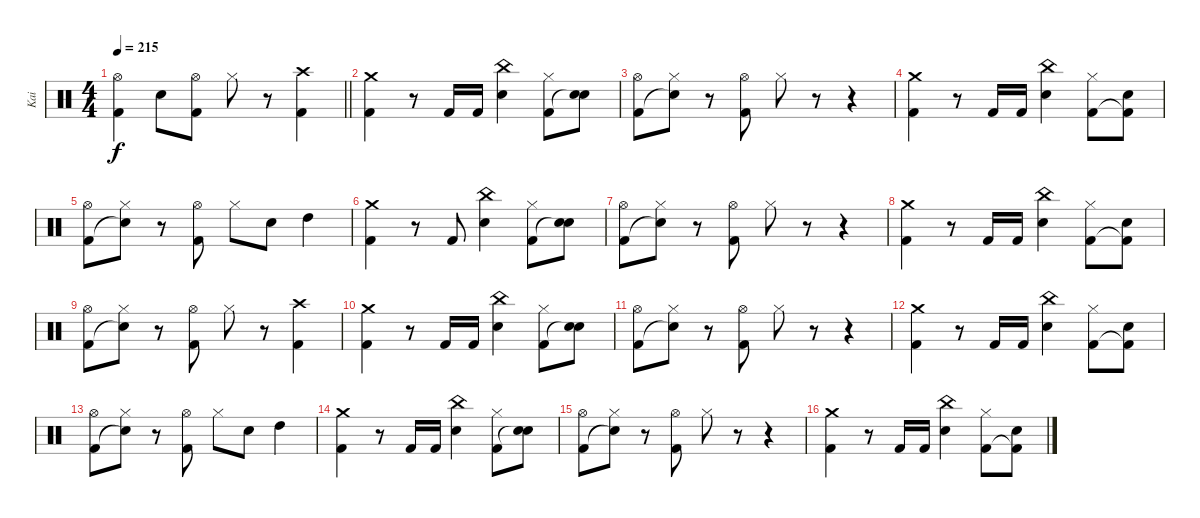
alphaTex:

\track ("Kai" "Kai") {instrument percussion}
\staff {score}
\articulation defaults
\ts (4 4)
\tempo 215
\clef neutral
\barLineRight lightlight
\ks c
("Hi-Hat (open)" "Kick (hit) 2").4{dy f} "Snare (hit) 2".8 ("Hi-Hat (open)" "Kick (hit) 2").8 "Hi-Hat (closed)".8 r.8 ("Crash high (hit)" "Kick (hit) 2").4 |
("Crash medium (hit)" "Kick (hit) 2").4 r.8 "Kick (hit) 2".16 "Kick (hit) 2".16 ("China (hit)" "Snare (hit) 2").4 ("Hi-Hat (closed)" "Kick (hit) 2").8 ("Snare (hit) 2" "Snare (hit)"{t}).8 |
("Hi-Hat (open)" "Kick (hit) 2").8 ("Hi-Hat (closed)" "Snare (hit)"{t}).8 r.8 ("Hi-Hat (open)" "Kick (hit) 2").8 "Hi-Hat (closed)".8 r.8 r.4 |
("Crash medium (hit)" "Kick (hit) 2").4 r.8 "Kick (hit) 2".16 "Kick (hit) 2".16 ("China (hit)" "Snare (hit) 2").4 ("Hi-Hat (closed)" "Kick (hit) 2").8 ("Snare (hit) 2" "Kick (hit) 2"{t}).8 |
("Hi-Hat (open)" "Kick (hit) 2").8 ("Hi-Hat (closed)" "Snare (hit)"{t}).8 r.8 ("Hi-Hat (open)" "Kick (hit) 2").8 "Hi-Hat (closed)".8 "Snare (hit) 2".8 "High Tom (hit)".4 |
("Crash medium (hit)" "Kick (hit) 2").4 r.8 "Kick (hit) 2".8 ("China (hit)" "Snare (hit) 2").4 ("Hi-Hat (closed)" "Kick (hit) 2").8 ("Snare (hit) 2" "Snare (hit)"{t}).8 |
("Hi-Hat (open)" "Kick (hit) 2").8 ("Hi-Hat (closed)" "Snare (hit)"{t}).8 r.8 ("Hi-Hat (open)" "Kick (hit) 2").8 "Hi-Hat (closed)".8 r.8 r.4 |
("Crash medium (hit)" "Kick (hit) 2").4 r.8 "Kick (hit) 2".16 "Kick (hit) 2".16 ("China (hit)" "Snare (hit) 2").4 ("Hi-Hat (closed)" "Kick (hit) 2").8 ("Snare (hit) 2" "Kick (hit) 2"{t}).8 |
("Hi-Hat (open)" "Kick (hit) 2").8 ("Hi-Hat (closed)" "Snare (hit)"{t}).8 r.8 ("Hi-Hat (open)" "Kick (hit) 2").8 "Hi-Hat (closed)".8 r.8 ("Crash high (hit)" "Kick (hit) 2").4 |
("Crash medium (hit)" "Kick (hit) 2").4 r.8 "Kick (hit) 2".16 "Kick (hit) 2".16 ("China (hit)" "Snare (hit) 2").4 ("Hi-Hat (closed)" "Kick (hit) 2").8 ("Snare (hit) 2" "Snare (hit)"{t}).8 |
("Hi-Hat (open)" "Kick (hit) 2").8 ("Hi-Hat (closed)" "Snare (hit)"{t}).8 r.8 ("Hi-Hat (open)" "Kick (hit) 2").8 "Hi-Hat (closed)".8 r.8 r.4 |
("Crash medium (hit)" "Kick (hit) 2").4 r.8 "Kick (hit) 2".16 "Kick (hit) 2".16 ("China (hit)" "Snare (hit) 2").4 ("Hi-Hat (closed)" "Kick (hit) 2").8 ("Snare (hit) 2" "Kick (hit) 2"{t}).8 |
("Hi-Hat (open)" "Kick (hit) 2").8 ("Hi-Hat (closed)" "Snare (hit)"{t}).8 r.8 ("Hi-Hat (open)" "Kick (hit) 2").8 "Hi-Hat (closed)".8 "Snare (hit) 2".8 "High Tom (hit)".4 |
("Crash medium (hit)" "Kick (hit) 2").4 r.8 "Kick (hit) 2".16 "Kick (hit) 2".16 ("China (hit)" "Snare (hit) 2").4 ("Hi-Hat (closed)" "Kick (hit) 2").8 ("Snare (hit) 2" "Snare (hit)"{t}).8 |
("Hi-Hat (open)" "Kick (hit) 2").8 ("Hi-Hat (closed)" "Snare (hit)"{t}).8 r.8 ("Hi-Hat (open)" "Kick (hit) 2").8 "Hi-Hat (closed)".8 r.8 r.4 |
("Crash medium (hit)" "Kick (hit) 2").4 r.8 "Kick (hit) 2".16 "Kick (hit) 2".16 ("China (hit)" "Snare (hit) 2").4 ("Hi-Hat (closed)" "Kick (hit) 2").8 ("Snare (hit) 2" "Kick (hit) 2"{t}).8
